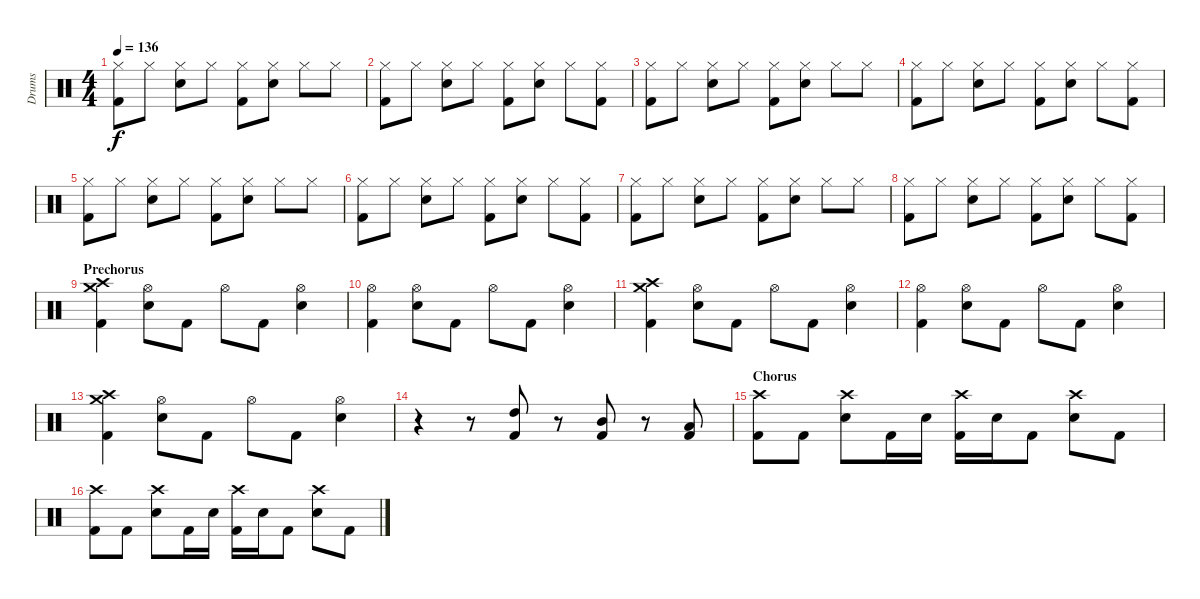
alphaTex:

\track ("Drums" "Drums") {instrument percussion}
\staff {score}
\articulation defaults
\ts (4 4)
\tempo 136
\clef neutral
\ks c
("Hi-Hat (closed)" "Kick (hit) 2").8{dy f} "Hi-Hat (closed)".8 ("Hi-Hat (closed)" "Electric Snare (hit)").8 "Hi-Hat (closed)".8 ("Hi-Hat (closed)" "Kick (hit) 2").8 ("Hi-Hat (closed)" "Electric Snare (hit)").8 "Hi-Hat (closed)".8 "Hi-Hat (closed)".8 |
("Hi-Hat (closed)" "Kick (hit) 2").8 "Hi-Hat (closed)".8 ("Hi-Hat (closed)" "Electric Snare (hit)").8 "Hi-Hat (closed)".8 ("Hi-Hat (closed)" "Kick (hit) 2").8 ("Hi-Hat (closed)" "Electric Snare (hit)").8 "Hi-Hat (closed)".8 ("Hi-Hat (closed)" "Kick (hit) 2").8 |
("Hi-Hat (closed)" "Kick (hit) 2").8 "Hi-Hat (closed)".8 ("Hi-Hat (closed)" "Electric Snare (hit)").8 "Hi-Hat (closed)".8 ("Hi-Hat (closed)" "Kick (hit) 2").8 ("Hi-Hat (closed)" "Electric Snare (hit)").8 "Hi-Hat (closed)".8 "Hi-Hat (closed)".8 |
("Hi-Hat (closed)" "Kick (hit) 2").8 "Hi-Hat (closed)".8 ("Hi-Hat (closed)" "Electric Snare (hit)").8 "Hi-Hat (closed)".8 ("Hi-Hat (closed)" "Kick (hit) 2").8 ("Hi-Hat (closed)" "Electric Snare (hit)").8 "Hi-Hat (closed)".8 ("Hi-Hat (closed)" "Kick (hit) 2").8 |
("Hi-Hat (closed)" "Kick (hit) 2").8 "Hi-Hat (closed)".8 ("Hi-Hat (closed)" "Electric Snare (hit)").8 "Hi-Hat (closed)".8 ("Hi-Hat (closed)" "Kick (hit) 2").8 ("Hi-Hat (closed)" "Electric Snare (hit)").8 "Hi-Hat (closed)".8 "Hi-Hat (closed)".8 |
("Hi-Hat (closed)" "Kick (hit) 2").8 "Hi-Hat (closed)".8 ("Hi-Hat (closed)" "Electric Snare (hit)").8 "Hi-Hat (closed)".8 ("Hi-Hat (closed)" "Kick (hit) 2").8 ("Hi-Hat (closed)" "Electric Snare (hit)").8 "Hi-Hat (closed)".8 ("Hi-Hat (closed)" "Kick (hit) 2").8 |
("Hi-Hat (closed)" "Kick (hit) 2").8 "Hi-Hat (closed)".8 ("Hi-Hat (closed)" "Electric Snare (hit)").8 "Hi-Hat (closed)".8 ("Hi-Hat (closed)" "Kick (hit) 2").8 ("Hi-Hat (closed)" "Electric Snare (hit)").8 "Hi-Hat (closed)".8 "Hi-Hat (closed)".8 |
("Hi-Hat (closed)" "Kick (hit) 2").8 "Hi-Hat (closed)".8 ("Hi-Hat (closed)" "Electric Snare (hit)").8 "Hi-Hat (closed)".8 ("Hi-Hat (closed)" "Kick (hit) 2").8 ("Hi-Hat (closed)" "Electric Snare (hit)").8 "Hi-Hat (closed)".8 ("Hi-Hat (closed)" "Kick (hit) 2").8 |
\section ("" "Prechorus")
("Crash medium (hit)" "Crash high (hit)" "Kick (hit) 2").4 ("Hi-Hat (open)" "Electric Snare (hit)").8 "Kick (hit) 2".8 "Hi-Hat (open)".8 "Kick (hit) 2".8 ("Hi-Hat (open)" "Electric Snare (hit)").4 |
("Hi-Hat (open)" "Kick (hit) 2").4 ("Hi-Hat (open)" "Electric Snare (hit)").8 "Kick (hit) 2".8 "Hi-Hat (open)".8 "Kick (hit) 2".8 ("Hi-Hat (open)" "Electric Snare (hit)").4 |
("Crash medium (hit)" "Crash high (hit)" "Kick (hit) 2").4 ("Hi-Hat (open)" "Electric Snare (hit)").8 "Kick (hit) 2".8 "Hi-Hat (open)".8 "Kick (hit) 2".8 ("Hi-Hat (open)" "Electric Snare (hit)").4 |
("Hi-Hat (open)" "Kick (hit) 2").4 ("Hi-Hat (open)" "Electric Snare (hit)").8 "Kick (hit) 2".8 "Hi-Hat (open)".8 "Kick (hit) 2".8 ("Hi-Hat (open)" "Electric Snare (hit)").4 |
("Crash medium (hit)" "Crash high (hit)" "Kick (hit) 2").4 ("Hi-Hat (open)" "Electric Snare (hit)").8 "Kick (hit) 2".8 "Hi-Hat (open)".8 "Kick (hit) 2".8 ("Hi-Hat (open)" "Electric Snare (hit)").4 |
r.4 r.8 ("High Tom (hit)" "Kick (hit) 2").8 r.8 ("Mid Tom (hit)" "Kick (hit) 2").8 r.8 ("Low Tom (hit)" "Kick (hit) 2").8 |
\section ("" "Chorus")
("Crash high (hit)" "Kick (hit) 2").8 "Kick (hit) 2".8 ("Crash high (hit)" "Electric Snare (hit)").8 "Kick (hit) 2".16 "Electric Snare (hit)".16 ("Crash high (hit)" "Kick (hit) 2").16 "Electric Snare (hit)".16 "Kick (hit) 2".8 ("Crash high (hit)" "Electric Snare (hit)").8 "Kick (hit) 2".8 |
("Crash high (hit)" "Kick (hit) 2").8 "Kick (hit) 2".8 ("Crash high (hit)" "Electric Snare (hit)").8 "Kick (hit) 2".16 "Electric Snare (hit)".16 ("Crash high (hit)" "Kick (hit) 2").16 "Electric Snare (hit)".16 "Kick (hit) 2".8 ("Crash high (hit)" "Electric Snare (hit)").8 "Kick (hit) 2".8
